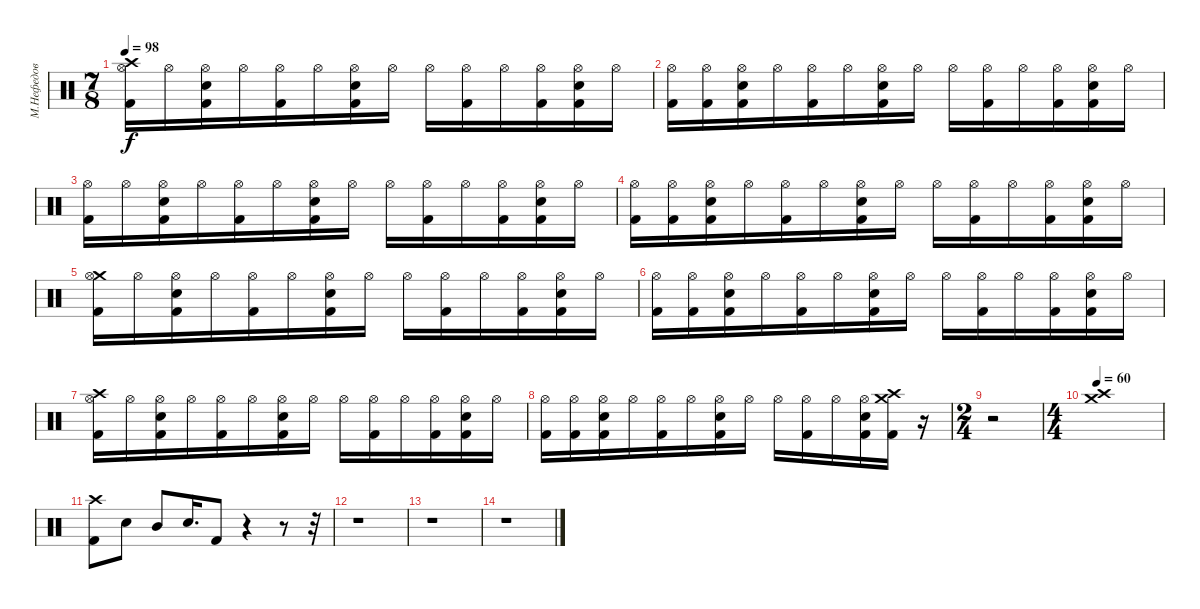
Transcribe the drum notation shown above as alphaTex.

\track ("М.Нефедов" "М.Нефедов") {instrument percussion}
\staff {score}
\articulation defaults
\ts (7 8)
\tempo 98
\clef neutral
\ks c
("Crash high (hit)" "Hi-Hat (open)" "Kick (hit) 2").16{dy f} "Hi-Hat (open)".16 ("Hi-Hat (open)" "Snare (hit) 2" "Kick (hit) 2").16 "Hi-Hat (open)".16 ("Hi-Hat (open)" "Kick (hit) 2").16 "Hi-Hat (open)".16 ("Hi-Hat (open)" "Snare (hit) 2" "Kick (hit) 2").16 "Hi-Hat (open)".16 "Hi-Hat (open)".16 ("Hi-Hat (open)" "Kick (hit) 2").16 "Hi-Hat (open)".16 ("Hi-Hat (open)" "Kick (hit) 2").16 ("Hi-Hat (open)" "Snare (hit) 2" "Kick (hit) 2").16 "Hi-Hat (open)".16 |
("Hi-Hat (open)" "Kick (hit) 2").16 ("Hi-Hat (open)" "Kick (hit) 2").16 ("Hi-Hat (open)" "Snare (hit) 2" "Kick (hit) 2").16 "Hi-Hat (open)".16 ("Hi-Hat (open)" "Kick (hit) 2").16 "Hi-Hat (open)".16 ("Hi-Hat (open)" "Snare (hit) 2" "Kick (hit) 2").16 "Hi-Hat (open)".16 "Hi-Hat (open)".16 ("Hi-Hat (open)" "Kick (hit) 2").16 "Hi-Hat (open)".16 ("Hi-Hat (open)" "Kick (hit) 2").16 ("Hi-Hat (open)" "Snare (hit) 2" "Kick (hit) 2").16 "Hi-Hat (open)".16 |
("Hi-Hat (open)" "Kick (hit) 2").16 "Hi-Hat (open)".16 ("Hi-Hat (open)" "Snare (hit) 2" "Kick (hit) 2").16 "Hi-Hat (open)".16 ("Hi-Hat (open)" "Kick (hit) 2").16 "Hi-Hat (open)".16 ("Hi-Hat (open)" "Snare (hit) 2" "Kick (hit) 2").16 "Hi-Hat (open)".16 "Hi-Hat (open)".16 ("Hi-Hat (open)" "Kick (hit) 2").16 "Hi-Hat (open)".16 ("Hi-Hat (open)" "Kick (hit) 2").16 ("Hi-Hat (open)" "Snare (hit) 2" "Kick (hit) 2").16 "Hi-Hat (open)".16 |
("Hi-Hat (open)" "Kick (hit) 2").16 ("Hi-Hat (open)" "Kick (hit) 2").16 ("Hi-Hat (open)" "Snare (hit) 2" "Kick (hit) 2").16 "Hi-Hat (open)".16 ("Hi-Hat (open)" "Kick (hit) 2").16 "Hi-Hat (open)".16 ("Hi-Hat (open)" "Snare (hit) 2" "Kick (hit) 2").16 "Hi-Hat (open)".16 "Hi-Hat (open)".16 ("Hi-Hat (open)" "Kick (hit) 2").16 "Hi-Hat (open)".16 ("Hi-Hat (open)" "Kick (hit) 2").16 ("Hi-Hat (open)" "Snare (hit) 2" "Kick (hit) 2").16 "Hi-Hat (open)".16 |
("Crash medium (hit)" "Hi-Hat (open)" "Kick (hit) 2").16 "Hi-Hat (open)".16 ("Hi-Hat (open)" "Snare (hit) 2" "Kick (hit) 2").16 "Hi-Hat (open)".16 ("Hi-Hat (open)" "Kick (hit) 2").16 "Hi-Hat (open)".16 ("Hi-Hat (open)" "Snare (hit) 2" "Kick (hit) 2").16 "Hi-Hat (open)".16 "Hi-Hat (open)".16 ("Hi-Hat (open)" "Kick (hit) 2").16 "Hi-Hat (open)".16 ("Hi-Hat (open)" "Kick (hit) 2").16 ("Hi-Hat (open)" "Snare (hit) 2" "Kick (hit) 2").16 "Hi-Hat (open)".16 |
("Hi-Hat (open)" "Kick (hit) 2").16 ("Hi-Hat (open)" "Kick (hit) 2").16 ("Hi-Hat (open)" "Snare (hit) 2" "Kick (hit) 2").16 "Hi-Hat (open)".16 ("Hi-Hat (open)" "Kick (hit) 2").16 "Hi-Hat (open)".16 ("Hi-Hat (open)" "Snare (hit) 2" "Kick (hit) 2").16 "Hi-Hat (open)".16 "Hi-Hat (open)".16 ("Hi-Hat (open)" "Kick (hit) 2").16 "Hi-Hat (open)".16 ("Hi-Hat (open)" "Kick (hit) 2").16 ("Hi-Hat (open)" "Snare (hit) 2" "Kick (hit) 2").16 "Hi-Hat (open)".16 |
("Crash high (hit)" "Hi-Hat (open)" "Kick (hit) 2").16 "Hi-Hat (open)".16 ("Hi-Hat (open)" "Snare (hit) 2" "Kick (hit) 2").16 "Hi-Hat (open)".16 ("Hi-Hat (open)" "Kick (hit) 2").16 "Hi-Hat (open)".16 ("Hi-Hat (open)" "Snare (hit) 2" "Kick (hit) 2").16 "Hi-Hat (open)".16 "Hi-Hat (open)".16 ("Hi-Hat (open)" "Kick (hit) 2").16 "Hi-Hat (open)".16 ("Hi-Hat (open)" "Kick (hit) 2").16 ("Hi-Hat (open)" "Snare (hit) 2" "Kick (hit) 2").16 "Hi-Hat (open)".16 |
("Hi-Hat (open)" "Kick (hit) 2").16 ("Hi-Hat (open)" "Kick (hit) 2").16 ("Hi-Hat (open)" "Snare (hit) 2" "Kick (hit) 2").16 "Hi-Hat (open)".16 ("Hi-Hat (open)" "Kick (hit) 2").16 "Hi-Hat (open)".16 ("Hi-Hat (open)" "Snare (hit) 2" "Kick (hit) 2").16 "Hi-Hat (open)".16 "Hi-Hat (open)".16 ("Hi-Hat (open)" "Kick (hit) 2").16 "Hi-Hat (open)".16 ("Hi-Hat (open)" "Snare (hit) 2" "Kick (hit) 2").16 ("Crash medium (hit)" "Crash high (hit)" "Kick (hit) 2").16 r.16 |
\ts (2 4)
r.2 |
\ts (4 4)
\tempo 60
("Crash medium (hit)" "Crash high (hit)").1 |
("Crash high (hit)" "Kick (hit) 2").8 "Snare (hit) 2".8 "Mid Tom (hit)".8 "Snare (hit) 2".16{d} "Kick (hit) 2".8 r.4 r.8 r.32 |
r.1 |
r.1 |
r.1
